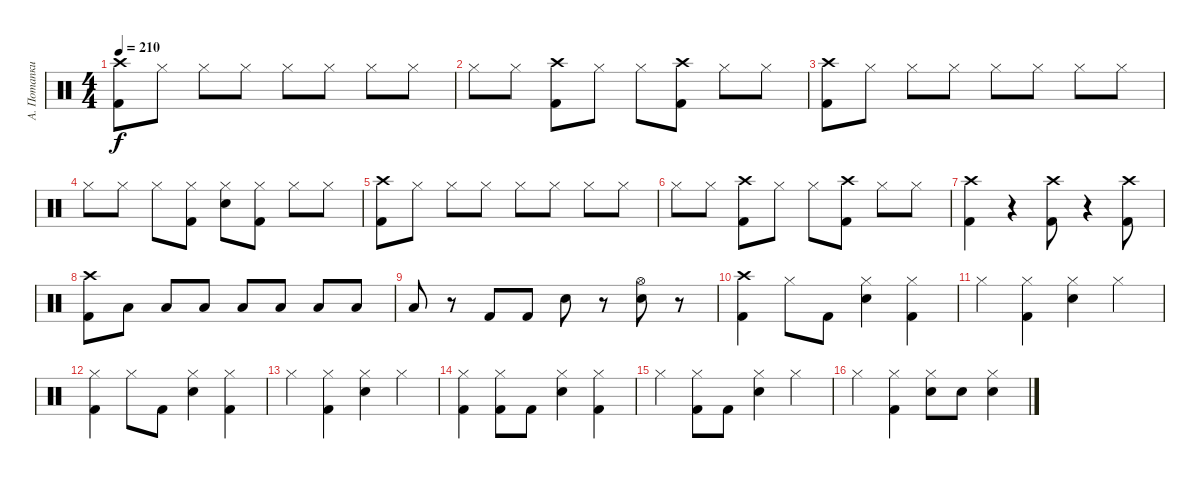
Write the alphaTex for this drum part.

\track ("А. Потапкин" "А. Потапки") {instrument percussion}
\staff {score}
\articulation defaults
\ts (4 4)
\tempo 210
\clef neutral
\ks c
("Crash high (hit)" "Kick (hit) 2").8{dy f} "Hi-Hat (closed)".8 "Hi-Hat (closed)".8 "Hi-Hat (closed)".8 "Hi-Hat (closed)".8 "Hi-Hat (closed)".8 "Hi-Hat (closed)".8 "Hi-Hat (closed)".8 |
"Hi-Hat (closed)".8 "Hi-Hat (closed)".8 ("Crash high (hit)" "Kick (hit) 2").8 "Hi-Hat (closed)".8 "Hi-Hat (closed)".8 ("Crash high (hit)" "Kick (hit) 2").8 "Hi-Hat (closed)".8 "Hi-Hat (closed)".8 |
("Crash high (hit)" "Kick (hit) 2").8 "Hi-Hat (closed)".8 "Hi-Hat (closed)".8 "Hi-Hat (closed)".8 "Hi-Hat (closed)".8 "Hi-Hat (closed)".8 "Hi-Hat (closed)".8 "Hi-Hat (closed)".8 |
"Hi-Hat (closed)".8 "Hi-Hat (closed)".8 "Hi-Hat (closed)".8 ("Hi-Hat (closed)" "Kick (hit) 2").8 ("Hi-Hat (closed)" "Snare (hit) 2").8 ("Hi-Hat (closed)" "Kick (hit) 2").8 "Hi-Hat (closed)".8 "Hi-Hat (closed)".8 |
("Crash high (hit)" "Kick (hit) 2").8 "Hi-Hat (closed)".8 "Hi-Hat (closed)".8 "Hi-Hat (closed)".8 "Hi-Hat (closed)".8 "Hi-Hat (closed)".8 "Hi-Hat (closed)".8 "Hi-Hat (closed)".8 |
"Hi-Hat (closed)".8 "Hi-Hat (closed)".8 ("Crash high (hit)" "Kick (hit) 2").8 "Hi-Hat (closed)".8 "Hi-Hat (closed)".8 ("Crash high (hit)" "Kick (hit) 2").8 "Hi-Hat (closed)".8 "Hi-Hat (closed)".8 |
("Crash high (hit)" "Kick (hit) 2").4 r.4 ("Crash high (hit)" "Kick (hit) 2").8 r.4 ("Crash high (hit)" "Kick (hit) 2").8 |
("Crash high (hit)" "Kick (hit) 2").8 "Low Floor Tom (hit)".8 "Low Floor Tom (hit)".8 "Low Floor Tom (hit)".8 "Low Floor Tom (hit)".8 "Low Floor Tom (hit)".8 "Low Floor Tom (hit)".8 "Low Floor Tom (hit)".8 |
"Low Floor Tom (hit)".8 r.8 "Kick (hit) 2".8 "Kick (hit) 2".8 "Snare (hit) 2".8 r.8 ("Hi-Hat (open)" "Snare (hit) 2").8 r.8 |
("Crash high (hit)" "Kick (hit) 2").4 "Hi-Hat (closed)".8 "Kick (hit) 2".8 ("Hi-Hat (closed)" "Snare (hit) 2").4 ("Hi-Hat (closed)" "Kick (hit) 2").4 |
"Hi-Hat (closed)".4 ("Hi-Hat (closed)" "Kick (hit) 2").4 ("Hi-Hat (closed)" "Snare (hit) 2").4 "Hi-Hat (closed)".4 |
("Hi-Hat (closed)" "Kick (hit) 2").4 "Hi-Hat (closed)".8 "Kick (hit) 2".8 ("Hi-Hat (closed)" "Snare (hit) 2").4 ("Hi-Hat (closed)" "Kick (hit) 2").4 |
"Hi-Hat (closed)".4 ("Hi-Hat (closed)" "Kick (hit) 2").4 ("Hi-Hat (closed)" "Snare (hit) 2").4 "Hi-Hat (closed)".4 |
("Hi-Hat (closed)" "Kick (hit) 2").4 ("Hi-Hat (closed)" "Kick (hit) 2").8 "Kick (hit) 2".8 ("Hi-Hat (closed)" "Snare (hit) 2").4 ("Hi-Hat (closed)" "Kick (hit) 2").4 |
"Hi-Hat (closed)".4 ("Hi-Hat (closed)" "Kick (hit) 2").8 "Kick (hit) 2".8 ("Hi-Hat (closed)" "Snare (hit) 2").4 "Hi-Hat (closed)".4 |
"Hi-Hat (closed)".4 ("Hi-Hat (closed)" "Kick (hit) 2").4 ("Hi-Hat (closed)" "Snare (hit) 2").8 "Snare (hit) 2".8 ("Hi-Hat (closed)" "Snare (hit) 2").4
